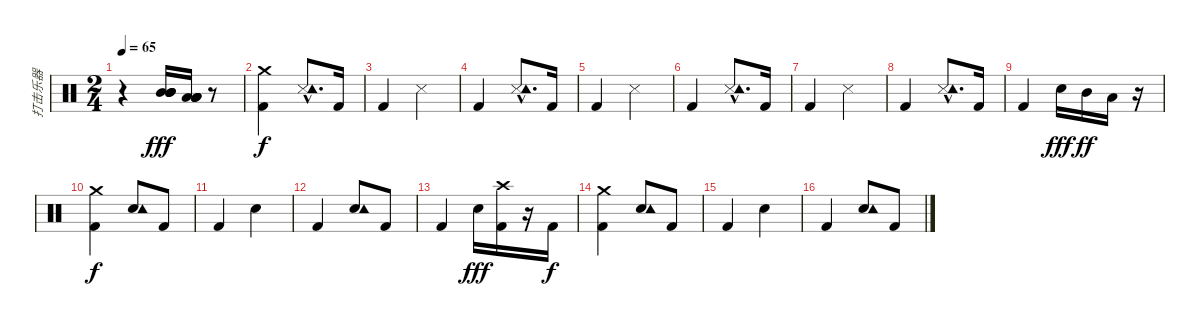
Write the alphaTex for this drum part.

\track ("打击乐器" "打击乐器") {instrument percussion}
\staff {score}
\articulation defaults
\ts (2 4)
\tempo 65
\clef neutral
\ks c
r.4{dy f} ("Mid Tom (hit)" "Mid Tom (hit)" "Mid Tom (hit)" "Mid Tom (hit)").16{dy fff} ("Low Tom (hit)" "Low Tom (hit)" "Low Tom (hit)" "Low Tom (hit)").16 r.8 |
("Crash medium (hit)" "Kick (hit) 2").4{dy f} ("Snare (side stick) 3"{hac} "Tambourine (hit)"{hac}).8{d} "Kick (hit) 2".16 |
"Kick (hit) 2".4 "Snare (side stick) 3".4 |
"Kick (hit) 2".4 ("Snare (side stick) 3"{hac} "Tambourine (hit)"{hac}).8{d} "Kick (hit) 2".16 |
"Kick (hit) 2".4 "Snare (side stick) 3".4 |
"Kick (hit) 2".4 ("Snare (side stick) 3"{hac} "Tambourine (hit)"{hac}).8{d} "Kick (hit) 2".16 |
"Kick (hit) 2".4 "Snare (side stick) 3".4 |
"Kick (hit) 2".4 ("Snare (side stick) 3"{hac} "Tambourine (hit)"{hac}).8{d} "Kick (hit) 2".16 |
"Kick (hit) 2".4 "Electric Snare (hit)".16{dy fff} "Mid Tom (hit)".16{dy ff} "Low Tom (hit)".16 r.16 |
("Crash medium (hit)" "Kick (hit) 2").4{dy f} ("Electric Snare (hit)" "Tambourine (hit)").8 "Kick (hit) 2".8 |
"Kick (hit) 2".4 "Electric Snare (hit)".4 |
"Kick (hit) 2".4 ("Electric Snare (hit)" "Tambourine (hit)").8 "Kick (hit) 2".8 |
"Kick (hit) 2".4 "Electric Snare (hit)".16{dy fff} ("Crash high (hit)" "Kick (hit) 2").16 r.16 "Kick (hit) 2".16{dy f} |
("Crash medium (hit)" "Kick (hit) 2").4 ("Electric Snare (hit)" "Tambourine (hit)").8 "Kick (hit) 2".8 |
"Kick (hit) 2".4 "Electric Snare (hit)".4 |
"Kick (hit) 2".4 ("Electric Snare (hit)" "Tambourine (hit)").8 "Kick (hit) 2".8
